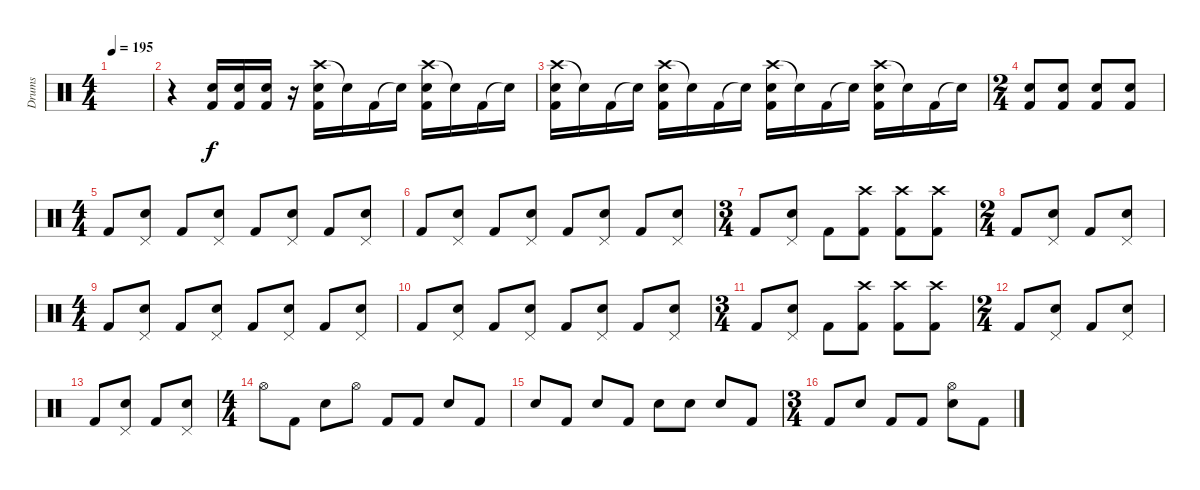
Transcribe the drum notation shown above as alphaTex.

\track ("Drums" "Drums") {instrument percussion}
\staff
\articulation defaults
\ts (4 4)
\tempo 195
\clef neutral
\ks c
|
r.4 ("Electric Snare (hit)" "Kick (hit) 2").16 ("Electric Snare (hit)" "Kick (hit) 2").16 ("Electric Snare (hit)" "Kick (hit) 2").16 r.16 ("Crash high (hit)" "Electric Snare (hit)" "Kick (hit) 2").16 "Snare (hit)"{t}.16 "Kick (hit) 2".16 "Snare (hit)"{t}.16 ("Crash high (hit)" "Electric Snare (hit)" "Kick (hit) 2").16 "Snare (hit)"{t}.16 "Kick (hit) 2".16 "Snare (hit)"{t}.16 |
("Crash high (hit)" "Electric Snare (hit)" "Kick (hit) 2").16 "Snare (hit)"{t}.16 "Kick (hit) 2".16 "Snare (hit)"{t}.16 ("Crash high (hit)" "Electric Snare (hit)" "Kick (hit) 2").16 "Snare (hit)"{t}.16 "Kick (hit) 2".16 "Snare (hit)"{t}.16 ("Crash high (hit)" "Electric Snare (hit)" "Kick (hit) 2").16 "Snare (hit)"{t}.16 "Kick (hit) 2".16 "Snare (hit)"{t}.16 ("Crash high (hit)" "Electric Snare (hit)" "Kick (hit) 2").16 "Snare (hit)"{t}.16 "Kick (hit) 2".16 "Snare (hit)"{t}.16 |
\ts (2 4)
("Electric Snare (hit)" "Kick (hit) 2").8 ("Electric Snare (hit)" "Kick (hit) 2").8 ("Electric Snare (hit)" "Kick (hit) 2").8 ("Electric Snare (hit)" "Kick (hit) 2").8 |
\ts (4 4)
"Kick (hit) 2".8 ("Electric Snare (hit)" "Pedal Hi-Hat (hit)").8 "Kick (hit) 2".8 ("Electric Snare (hit)" "Pedal Hi-Hat (hit)").8 "Kick (hit) 2".8 ("Electric Snare (hit)" "Pedal Hi-Hat (hit)").8 "Kick (hit) 2".8 ("Electric Snare (hit)" "Pedal Hi-Hat (hit)").8 |
"Kick (hit) 2".8 ("Electric Snare (hit)" "Pedal Hi-Hat (hit)").8 "Kick (hit) 2".8 ("Electric Snare (hit)" "Pedal Hi-Hat (hit)").8 "Kick (hit) 2".8 ("Electric Snare (hit)" "Pedal Hi-Hat (hit)").8 "Kick (hit) 2".8 ("Electric Snare (hit)" "Pedal Hi-Hat (hit)").8 |
\ts (3 4)
"Kick (hit) 2".8 ("Pedal Hi-Hat (hit)" "Electric Snare (hit)").8 "Kick (hit) 2".8 ("Crash high (hit)" "Kick (hit) 2").8 ("Crash high (hit)" "Kick (hit) 2").8 ("Crash high (hit)" "Kick (hit) 2").8 |
\ts (2 4)
"Kick (hit) 2".8 ("Pedal Hi-Hat (hit)" "Electric Snare (hit)").8 "Kick (hit) 2".8 ("Pedal Hi-Hat (hit)" "Electric Snare (hit)").8 |
\ts (4 4)
"Kick (hit) 2".8 ("Electric Snare (hit)" "Pedal Hi-Hat (hit)").8 "Kick (hit) 2".8 ("Electric Snare (hit)" "Pedal Hi-Hat (hit)").8 "Kick (hit) 2".8 ("Electric Snare (hit)" "Pedal Hi-Hat (hit)").8 "Kick (hit) 2".8 ("Electric Snare (hit)" "Pedal Hi-Hat (hit)").8 |
"Kick (hit) 2".8 ("Electric Snare (hit)" "Pedal Hi-Hat (hit)").8 "Kick (hit) 2".8 ("Electric Snare (hit)" "Pedal Hi-Hat (hit)").8 "Kick (hit) 2".8 ("Electric Snare (hit)" "Pedal Hi-Hat (hit)").8 "Kick (hit) 2".8 ("Electric Snare (hit)" "Pedal Hi-Hat (hit)").8 |
\ts (3 4)
"Kick (hit) 2".8 ("Pedal Hi-Hat (hit)" "Electric Snare (hit)").8 "Kick (hit) 2".8 ("Crash high (hit)" "Kick (hit) 2").8 ("Crash high (hit)" "Kick (hit) 2").8 ("Crash high (hit)" "Kick (hit) 2").8 |
\ts (2 4)
"Kick (hit) 2".8 ("Pedal Hi-Hat (hit)" "Electric Snare (hit)").8 "Kick (hit) 2".8 ("Pedal Hi-Hat (hit)" "Electric Snare (hit)").8 |
"Kick (hit) 2".8 ("Pedal Hi-Hat (hit)" "Electric Snare (hit)").8 "Kick (hit) 2".8 ("Pedal Hi-Hat (hit)" "Electric Snare (hit)").8 |
\ts (4 4)
"Hi-Hat (open)".8 "Kick (hit) 2".8 "Electric Snare (hit)".8 "Hi-Hat (open)".8 "Kick (hit) 2".8 "Kick (hit) 2".8 "Electric Snare (hit)".8 "Kick (hit) 2".8 |
"Electric Snare (hit)".8 "Kick (hit) 2".8 "Electric Snare (hit)".8 "Kick (hit) 2".8 "Electric Snare (hit)".8 "Electric Snare (hit)".8 "Electric Snare (hit)".8 "Kick (hit) 2".8 |
\ts (3 4)
"Kick (hit) 2".8 "Electric Snare (hit)".8 "Kick (hit) 2".8 "Kick (hit) 2".8 ("Electric Snare (hit)" "Hi-Hat (open)").8 "Kick (hit) 2".8
